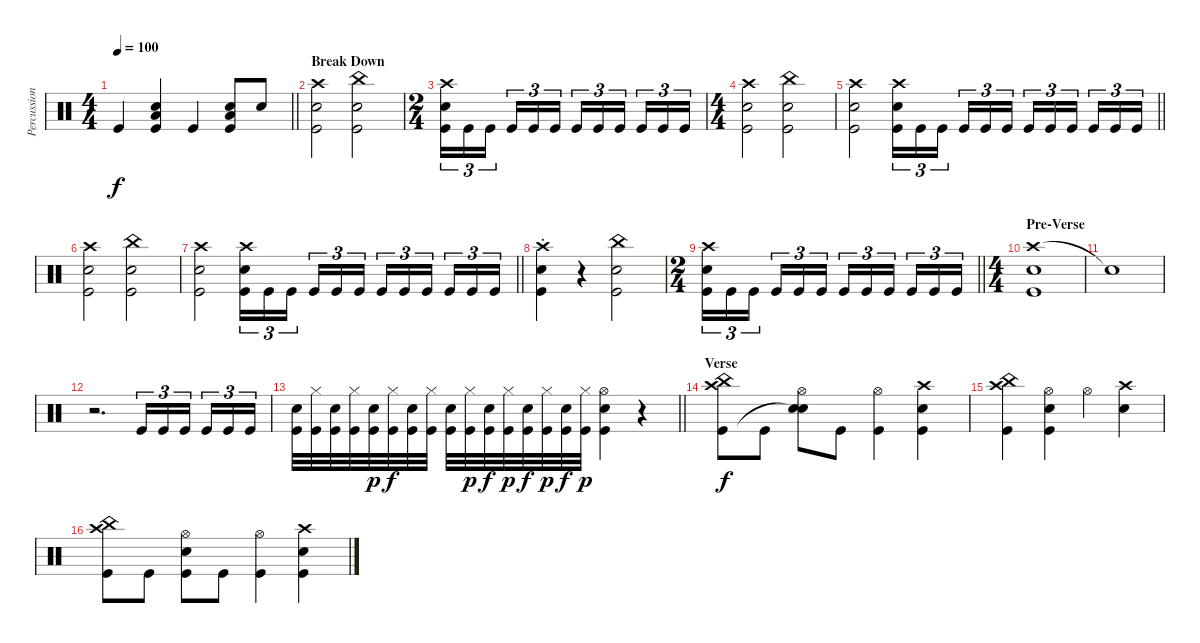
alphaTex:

\track ("Percussion" "Percussion") {instrument percussion}
\staff {score}
\articulation defaults
\ts (4 4)
\tempo 100
\clef neutral
\barLineRight lightlight
\ks c "Kick (hit)".4{dy f}
("Electric Snare (hit)" "Low Tom (hit)" "Kick (hit)").4 "Kick (hit)".4 ("Electric Snare (hit)" "Low Tom (hit)" "Kick (hit)").8 "Electric Snare (hit)".8 |
\section ("" "Break Down")
("Crash high (hit)" "Electric Snare (hit)" "Kick (hit)").2 ("China (hit)" "Electric Snare (hit)" "Kick (hit)").2 |
\ts (2 4)
("Crash high (hit)" "Electric Snare (hit)" "Kick (hit)").16{tu (3 2)} "Kick (hit)".16{tu (3 2)} "Kick (hit)".16{tu (3 2) beam splitsecondary} "Kick (hit)".16{tu (3 2)} "Kick (hit)".16{tu (3 2)} "Kick (hit)".16{tu (3 2)} "Kick (hit)".16{tu (3 2)} "Kick (hit)".16{tu (3 2)} "Kick (hit)".16{tu (3 2) beam splitsecondary} "Kick (hit)".16{tu (3 2)} "Kick (hit)".16{tu (3 2)} "Kick (hit)".16{tu (3 2)} |
\ts (4 4)
("Crash high (hit)" "Electric Snare (hit)" "Kick (hit)").2 ("China (hit)" "Electric Snare (hit)" "Kick (hit)").2 |
\barLineRight lightlight
("Crash high (hit)" "Electric Snare (hit)" "Kick (hit)").2 ("Crash high (hit)" "Electric Snare (hit)" "Kick (hit)").16{tu (3 2)} "Kick (hit)".16{tu (3 2)} "Kick (hit)".16{tu (3 2) beam splitsecondary} "Kick (hit)".16{tu (3 2)} "Kick (hit)".16{tu (3 2)} "Kick (hit)".16{tu (3 2)} "Kick (hit)".16{tu (3 2)} "Kick (hit)".16{tu (3 2)} "Kick (hit)".16{tu (3 2) beam splitsecondary} "Kick (hit)".16{tu (3 2)} "Kick (hit)".16{tu (3 2)} "Kick (hit)".16{tu (3 2)} |
("Crash high (hit)" "Electric Snare (hit)" "Kick (hit)").2 ("China (hit)" "Electric Snare (hit)" "Kick (hit)").2 |
\barLineRight lightlight
("Crash high (hit)" "Electric Snare (hit)" "Kick (hit)").2 ("Crash high (hit)" "Electric Snare (hit)" "Kick (hit)").16{tu (3 2)} "Kick (hit)".16{tu (3 2)} "Kick (hit)".16{tu (3 2) beam splitsecondary} "Kick (hit)".16{tu (3 2)} "Kick (hit)".16{tu (3 2)} "Kick (hit)".16{tu (3 2)} "Kick (hit)".16{tu (3 2)} "Kick (hit)".16{tu (3 2)} "Kick (hit)".16{tu (3 2) beam splitsecondary} "Kick (hit)".16{tu (3 2)} "Kick (hit)".16{tu (3 2)} "Kick (hit)".16{tu (3 2)} |
("Crash high (hit)"{st} "Electric Snare (hit)"{st} "Kick (hit)"{st}).4 r.4 ("China (hit)" "Electric Snare (hit)" "Kick (hit)").2 |
\ts (2 4)
\barLineRight lightlight
("Crash high (hit)" "Electric Snare (hit)" "Kick (hit)").16{tu (3 2)} "Kick (hit)".16{tu (3 2)} "Kick (hit)".16{tu (3 2) beam splitsecondary} "Kick (hit)".16{tu (3 2)} "Kick (hit)".16{tu (3 2)} "Kick (hit)".16{tu (3 2)} "Kick (hit)".16{tu (3 2)} "Kick (hit)".16{tu (3 2)} "Kick (hit)".16{tu (3 2) beam splitsecondary} "Kick (hit)".16{tu (3 2)} "Kick (hit)".16{tu (3 2)} "Kick (hit)".16{tu (3 2)} |
\ts (4 4)
\section ("" "Pre-Verse")
("Crash high (hit)" "Electric Snare (hit)" "Kick (hit)").1 |
"Snare (hit)"{t}.1 |
r.2{d} "Kick (hit)".16{tu (3 2)} "Kick (hit)".16{tu (3 2)} "Kick (hit)".16{tu (3 2) beam splitsecondary} "Kick (hit)".16{tu (3 2)} "Kick (hit)".16{tu (3 2)} "Kick (hit)".16{tu (3 2)} |
\barLineRight lightlight
("Electric Snare (hit)" "Kick (hit)").32 ("Hi-Hat (closed)" "Kick (hit)").32 ("Electric Snare (hit)" "Kick (hit)").32 ("Hi-Hat (closed)" "Kick (hit)").32 ("Electric Snare (hit)" "Kick (hit)").32{dy p} ("Hi-Hat (closed)" "Kick (hit)").32{dy f} ("Electric Snare (hit)" "Kick (hit)").32 ("Hi-Hat (closed)" "Kick (hit)").32 ("Electric Snare (hit)" "Kick (hit)").32 ("Hi-Hat (closed)" "Kick (hit)").32{dy p} ("Electric Snare (hit)" "Kick (hit)").32{dy f} ("Hi-Hat (closed)" "Kick (hit)").32{dy p} ("Electric Snare (hit)" "Kick (hit)").32{dy f} ("Hi-Hat (closed)" "Kick (hit)").32{dy p} ("Electric Snare (hit)" "Kick (hit)").32{dy f} ("Hi-Hat (closed)" "Kick (hit)").32{dy p} ("Hi-Hat (open)" "Electric Snare (hit)" "Kick (hit)").4 r.4 |
\section ("" "Verse")
("China (hit)" "Crash high (hit)" "Kick (hit)").8{dy f} "Kick (hit)".8 ("Hi-Hat (open)" "Electric Snare (hit)" "Snare (hit)"{t}).8 "Kick (hit)".8 ("Hi-Hat (open)" "Kick (hit)").4 ("Crash high (hit)" "Electric Snare (hit)" "Kick (hit)").4 |
("China (hit)" "Crash high (hit)" "Kick (hit)").4 ("Hi-Hat (open)" "Electric Snare (hit)" "Kick (hit)").4 "Hi-Hat (open)".4 ("Crash high (hit)" "Electric Snare (hit)").4 |
("China (hit)" "Crash high (hit)" "Kick (hit)").8 "Kick (hit)".8 ("Hi-Hat (open)" "Electric Snare (hit)" "Kick (hit)").8 "Kick (hit)".8 ("Hi-Hat (open)" "Kick (hit)").4 ("Crash high (hit)" "Electric Snare (hit)" "Kick (hit)").4
